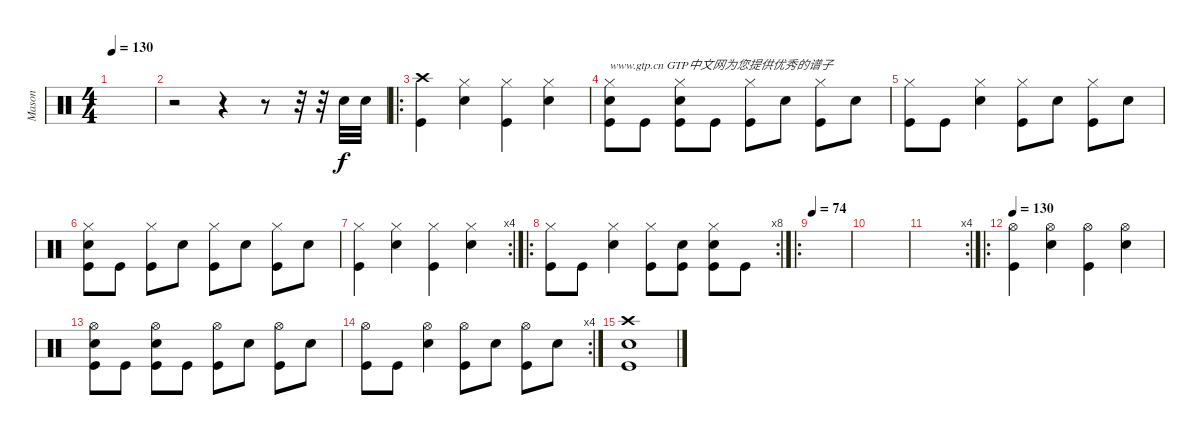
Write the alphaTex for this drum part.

\track ("Mason" "Mason") {instrument percussion}
\staff {score}
\articulation defaults
\ts (4 4)
\tempo 130
\clef neutral
\ks c
|
r.2 r.4 r.8 r.32 r.32 "Snare (hit) 2".32 "Snare (hit) 2".32 |
\ro
("Kick (hit)" "Crash high (hit)").4 ("Snare (hit) 2" "Hi-Hat (closed)").4 ("Kick (hit)" "Hi-Hat (closed)").4 ("Snare (hit) 2" "Hi-Hat (closed)").4 |
("Kick (hit)" "Snare (hit) 2" "Hi-Hat (closed)").8{txt "www.gtp.cn GTP中文网为您提供优秀的谱子"} "Kick (hit)".8 ("Kick (hit)" "Snare (hit) 2" "Hi-Hat (closed)").8 "Kick (hit)".8 ("Kick (hit)" "Hi-Hat (closed)").8 "Snare (hit) 2".8 ("Kick (hit)" "Hi-Hat (closed)").8 "Snare (hit) 2".8 |
("Kick (hit)" "Hi-Hat (closed)").8 "Kick (hit)".8 ("Snare (hit) 2" "Hi-Hat (closed)").4 ("Kick (hit)" "Hi-Hat (closed)").8 "Snare (hit) 2".8 ("Kick (hit)" "Hi-Hat (closed)").8 "Snare (hit) 2".8 |
("Kick (hit)" "Snare (hit) 2" "Hi-Hat (closed)").8 "Kick (hit)".8 ("Kick (hit)" "Hi-Hat (closed)").8 "Snare (hit) 2".8 ("Kick (hit)" "Hi-Hat (closed)").8 "Snare (hit) 2".8 ("Kick (hit)" "Hi-Hat (closed)").8 "Snare (hit) 2".8 |
\rc 4
("Kick (hit)" "Hi-Hat (closed)").4 ("Snare (hit) 2" "Hi-Hat (closed)").4 ("Kick (hit)" "Hi-Hat (closed)").4 ("Snare (hit) 2" "Hi-Hat (closed)").4 |
\ro
\rc 8
("Kick (hit)" "Hi-Hat (closed)").8 "Kick (hit)".8 ("Snare (hit) 2" "Hi-Hat (closed)").4 ("Kick (hit)" "Hi-Hat (closed)").8 ("Kick (hit)" "Snare (hit) 2").8 ("Kick (hit)" "Snare (hit) 2" "Hi-Hat (closed)").8 "Kick (hit)".8 |
\ro
\tempo 74
|
|
\rc 4
|
\ro
\tempo 130
("Kick (hit)" "Hi-Hat (open)").4 ("Snare (hit) 2" "Hi-Hat (open)").4 ("Kick (hit)" "Hi-Hat (open)").4 ("Snare (hit) 2" "Hi-Hat (open)").4 |
("Kick (hit)" "Snare (hit) 2" "Hi-Hat (open)").8 "Kick (hit)".8 ("Kick (hit)" "Snare (hit) 2" "Hi-Hat (open)").8 "Kick (hit)".8 ("Kick (hit)" "Hi-Hat (open)").8 "Snare (hit) 2".8 ("Kick (hit)" "Hi-Hat (open)").8 "Snare (hit) 2".8 |
\rc 4
("Kick (hit)" "Hi-Hat (open)").8 "Kick (hit)".8 ("Snare (hit) 2" "Hi-Hat (open)").4 ("Kick (hit)" "Hi-Hat (open)").8 "Snare (hit) 2".8 ("Kick (hit)" "Hi-Hat (open)").8 "Snare (hit) 2".8 |
("Kick (hit)" "Snare (hit) 2" "Crash high (hit)").1
